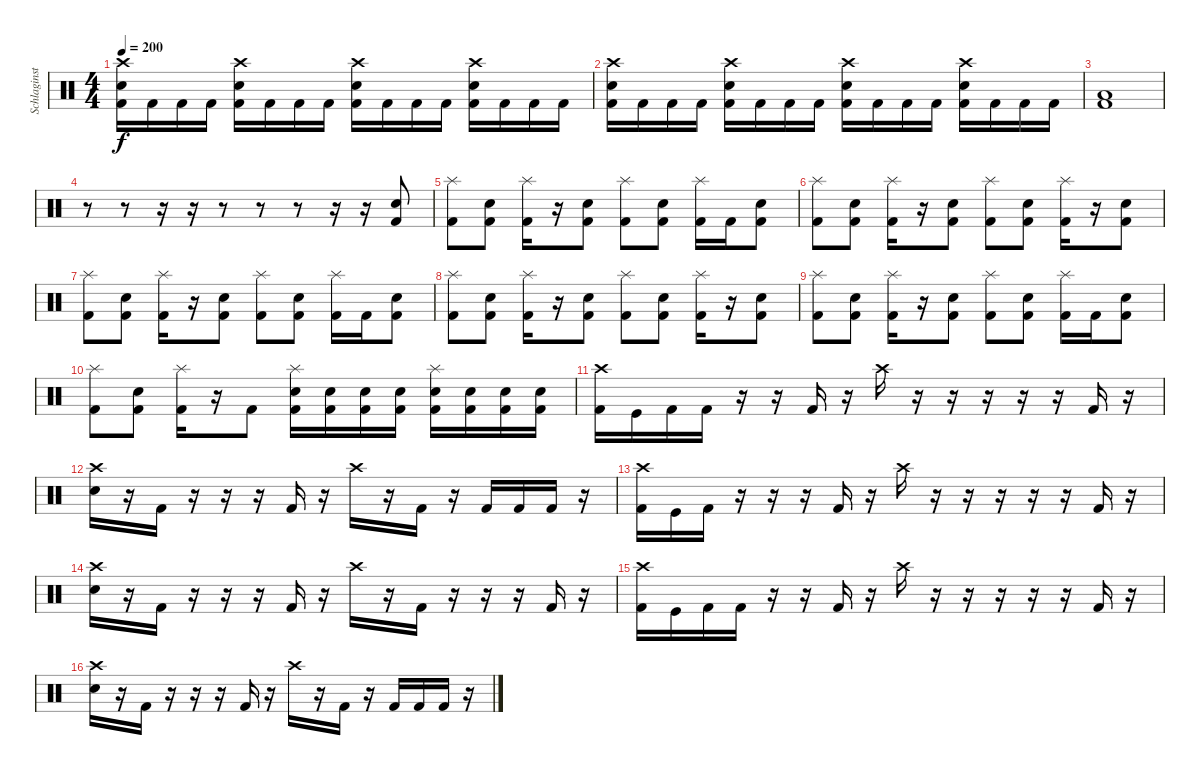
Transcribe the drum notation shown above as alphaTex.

\track ("Schlaginstrumente - Auswahl" "Schlaginst") {instrument percussion}
\staff {score}
\articulation defaults
\ts (4 4)
\tempo 200
\clef neutral
\ks c
("Crash high (hit)" "Electric Snare (hit)" "Kick (hit) 2").16{dy f} "Kick (hit) 2".16 "Kick (hit) 2".16 "Kick (hit) 2".16 ("Crash high (hit)" "Electric Snare (hit)" "Kick (hit) 2").16 "Kick (hit) 2".16 "Kick (hit) 2".16 "Kick (hit) 2".16 ("Crash high (hit)" "Electric Snare (hit)" "Kick (hit) 2").16 "Kick (hit) 2".16 "Kick (hit) 2".16 "Kick (hit) 2".16 ("Crash high (hit)" "Electric Snare (hit)" "Kick (hit) 2").16 "Kick (hit) 2".16 "Kick (hit) 2".16 "Kick (hit) 2".16 |
("Crash high (hit)" "Electric Snare (hit)" "Kick (hit) 2").16 "Kick (hit) 2".16 "Kick (hit) 2".16 "Kick (hit) 2".16 ("Crash high (hit)" "Electric Snare (hit)" "Kick (hit) 2").16 "Kick (hit) 2".16 "Kick (hit) 2".16 "Kick (hit) 2".16 ("Crash high (hit)" "Electric Snare (hit)" "Kick (hit) 2").16 "Kick (hit) 2".16 "Kick (hit) 2".16 "Kick (hit) 2".16 ("Crash high (hit)" "Electric Snare (hit)" "Kick (hit) 2").16 "Kick (hit) 2".16 "Kick (hit) 2".16 "Kick (hit) 2".16 |
("Low Floor Tom (hit)" "Kick (hit) 2").1 |
r.8 r.8 r.16 r.16 r.8 r.8 r.8 r.16 r.16 ("Kick (hit) 2" "Electric Snare (hit)").8 |
("Kick (hit) 2" "Splash (hit)").8 ("Kick (hit) 2" "Electric Snare (hit)").8 ("Kick (hit) 2" "Splash (hit)").16 r.16 ("Kick (hit) 2" "Electric Snare (hit)").8 ("Kick (hit) 2" "Splash (hit)").8 ("Kick (hit) 2" "Electric Snare (hit)").8 ("Kick (hit) 2" "Splash (hit)").16 "Kick (hit) 2".16 ("Kick (hit) 2" "Electric Snare (hit)").8 |
("Kick (hit) 2" "Splash (hit)").8 ("Kick (hit) 2" "Electric Snare (hit)").8 ("Kick (hit) 2" "Splash (hit)").16 r.16 ("Kick (hit) 2" "Electric Snare (hit)").8 ("Kick (hit) 2" "Splash (hit)").8 ("Kick (hit) 2" "Electric Snare (hit)").8 ("Kick (hit) 2" "Splash (hit)").16 r.16 ("Kick (hit) 2" "Electric Snare (hit)").8 |
("Kick (hit) 2" "Splash (hit)").8 ("Kick (hit) 2" "Electric Snare (hit)").8 ("Kick (hit) 2" "Splash (hit)").16 r.16 ("Kick (hit) 2" "Electric Snare (hit)").8 ("Kick (hit) 2" "Splash (hit)").8 ("Kick (hit) 2" "Electric Snare (hit)").8 ("Kick (hit) 2" "Splash (hit)").16 "Kick (hit) 2".16 ("Kick (hit) 2" "Electric Snare (hit)").8 |
("Kick (hit) 2" "Splash (hit)").8 ("Kick (hit) 2" "Electric Snare (hit)").8 ("Kick (hit) 2" "Splash (hit)").16 r.16 ("Kick (hit) 2" "Electric Snare (hit)").8 ("Kick (hit) 2" "Splash (hit)").8 ("Kick (hit) 2" "Electric Snare (hit)").8 ("Kick (hit) 2" "Splash (hit)").16 r.16 ("Kick (hit) 2" "Electric Snare (hit)").8 |
("Kick (hit) 2" "Splash (hit)").8 ("Kick (hit) 2" "Electric Snare (hit)").8 ("Kick (hit) 2" "Splash (hit)").16 r.16 ("Kick (hit) 2" "Electric Snare (hit)").8 ("Kick (hit) 2" "Splash (hit)").8 ("Kick (hit) 2" "Electric Snare (hit)").8 ("Kick (hit) 2" "Splash (hit)").16 "Kick (hit) 2".16 ("Kick (hit) 2" "Electric Snare (hit)").8 |
("Kick (hit) 2" "Splash (hit)").8 ("Kick (hit) 2" "Electric Snare (hit)").8 ("Kick (hit) 2" "Splash (hit)").16 r.16 "Kick (hit) 2".8 ("Kick (hit) 2" "Electric Snare (hit)" "Splash (hit)").16 ("Kick (hit) 2" "Electric Snare (hit)").16 ("Kick (hit) 2" "Electric Snare (hit)").16 ("Kick (hit) 2" "Electric Snare (hit)").16 ("Kick (hit) 2" "Electric Snare (hit)" "Splash (hit)").16 ("Kick (hit) 2" "Electric Snare (hit)").16 ("Kick (hit) 2" "Electric Snare (hit)").16 ("Kick (hit) 2" "Electric Snare (hit)").16 |
("Crash high (hit)" "Kick (hit) 2").16 "Kick (hit)".16 "Kick (hit) 2".16 "Kick (hit) 2".16 r.16 r.16 "Kick (hit) 2".16 r.16 "Crash high (hit)".16 r.16 r.16 r.16 r.16 r.16 "Kick (hit) 2".16 r.16 |
("Crash high (hit)" "Electric Snare (hit)").16 r.16 "Kick (hit) 2".16 r.16 r.16 r.16 "Kick (hit) 2".16 r.16 "Crash high (hit)".16 r.16 "Kick (hit) 2".16 r.16 "Kick (hit) 2".16 "Kick (hit) 2".16 "Kick (hit) 2".16 r.16 |
("Crash high (hit)" "Kick (hit) 2").16 "Kick (hit)".16 "Kick (hit) 2".16 r.16 r.16 r.16 "Kick (hit) 2".16 r.16 "Crash high (hit)".16 r.16 r.16 r.16 r.16 r.16 "Kick (hit) 2".16 r.16 |
("Crash high (hit)" "Electric Snare (hit)").16 r.16 "Kick (hit) 2".16 r.16 r.16 r.16 "Kick (hit) 2".16 r.16 "Crash high (hit)".16 r.16 "Kick (hit) 2".16 r.16 r.16 r.16 "Kick (hit) 2".16 r.16 |
("Crash high (hit)" "Kick (hit) 2").16 "Kick (hit)".16 "Kick (hit) 2".16 "Kick (hit) 2".16 r.16 r.16 "Kick (hit) 2".16 r.16 "Crash high (hit)".16 r.16 r.16 r.16 r.16 r.16 "Kick (hit) 2".16 r.16 |
("Crash high (hit)" "Electric Snare (hit)").16 r.16 "Kick (hit) 2".16 r.16 r.16 r.16 "Kick (hit) 2".16 r.16 "Crash high (hit)".16 r.16 "Kick (hit) 2".16 r.16 "Kick (hit) 2".16 "Kick (hit) 2".16 "Kick (hit) 2".16 r.16
